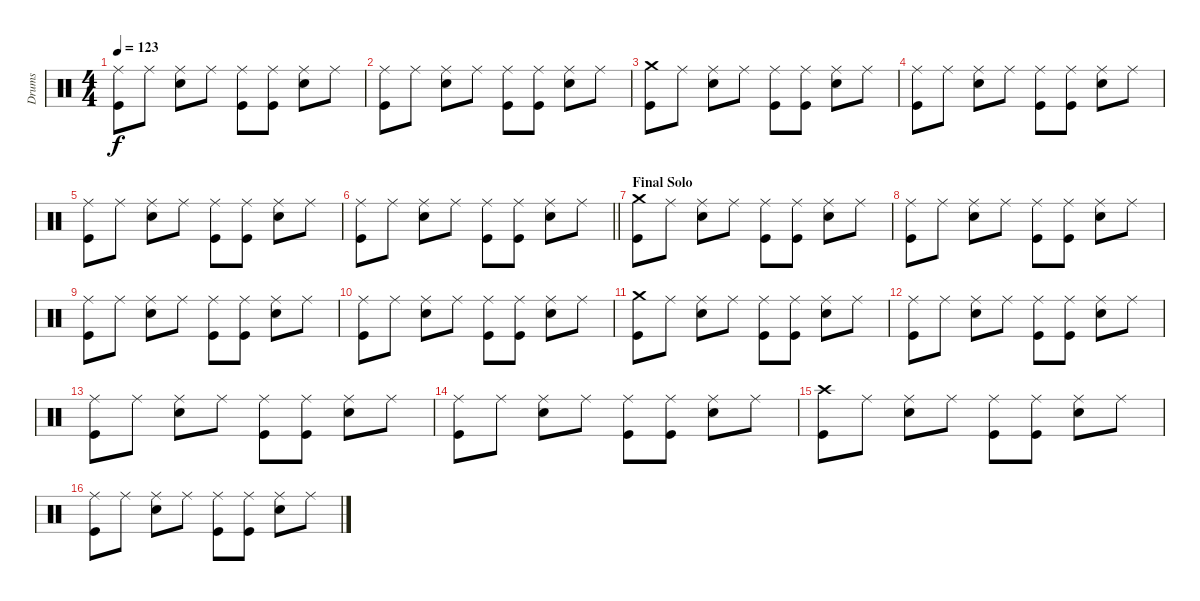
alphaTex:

\track ("Drums" "Drums") {instrument percussion}
\staff {score}
\articulation defaults
\ts (4 4)
\tempo 123
\clef neutral
\ks c
("Ride (middle)" "Kick (hit)").8{dy f} "Ride (middle)".8 ("Ride (middle)" "Electric Snare (hit)").8 "Ride (middle)".8 ("Ride (middle)" "Kick (hit)").8 ("Ride (middle)" "Kick (hit)").8 ("Ride (middle)" "Electric Snare (hit)").8 "Ride (middle)".8 |
("Ride (middle)" "Kick (hit)").8 "Ride (middle)".8 ("Ride (middle)" "Electric Snare (hit)").8 "Ride (middle)".8 ("Ride (middle)" "Kick (hit)").8 ("Ride (middle)" "Kick (hit)").8 ("Ride (middle)" "Electric Snare (hit)").8 "Ride (middle)".8 |
("Crash medium (hit)" "Kick (hit)").8 "Ride (middle)".8 ("Ride (middle)" "Electric Snare (hit)").8 "Ride (middle)".8 ("Ride (middle)" "Kick (hit)").8 ("Ride (middle)" "Kick (hit)").8 ("Ride (middle)" "Electric Snare (hit)").8 "Ride (middle)".8 |
("Ride (middle)" "Kick (hit)").8 "Ride (middle)".8 ("Ride (middle)" "Electric Snare (hit)").8 "Ride (middle)".8 ("Ride (middle)" "Kick (hit)").8 ("Ride (middle)" "Kick (hit)").8 ("Ride (middle)" "Electric Snare (hit)").8 "Ride (middle)".8 |
("Ride (middle)" "Kick (hit)").8 "Ride (middle)".8 ("Ride (middle)" "Electric Snare (hit)").8 "Ride (middle)".8 ("Ride (middle)" "Kick (hit)").8 ("Ride (middle)" "Kick (hit)").8 ("Ride (middle)" "Electric Snare (hit)").8 "Ride (middle)".8 |
\barLineRight lightlight
("Ride (middle)" "Kick (hit)").8 "Ride (middle)".8 ("Ride (middle)" "Electric Snare (hit)").8 "Ride (middle)".8 ("Ride (middle)" "Kick (hit)").8 ("Ride (middle)" "Kick (hit)").8 ("Ride (middle)" "Electric Snare (hit)").8 "Ride (middle)".8 |
\section ("" "Final Solo")
("Crash medium (hit)" "Kick (hit)").8 "Ride (middle)".8 ("Ride (middle)" "Electric Snare (hit)").8 "Ride (middle)".8 ("Ride (middle)" "Kick (hit)").8 ("Ride (middle)" "Kick (hit)").8 ("Ride (middle)" "Electric Snare (hit)").8 "Ride (middle)".8 |
("Ride (middle)" "Kick (hit)").8 "Ride (middle)".8 ("Ride (middle)" "Electric Snare (hit)").8 "Ride (middle)".8 ("Ride (middle)" "Kick (hit)").8 ("Ride (middle)" "Kick (hit)").8 ("Ride (middle)" "Electric Snare (hit)").8 "Ride (middle)".8 |
("Ride (middle)" "Kick (hit)").8 "Ride (middle)".8 ("Ride (middle)" "Electric Snare (hit)").8 "Ride (middle)".8 ("Ride (middle)" "Kick (hit)").8 ("Ride (middle)" "Kick (hit)").8 ("Ride (middle)" "Electric Snare (hit)").8 "Ride (middle)".8 |
("Ride (middle)" "Kick (hit)").8 "Ride (middle)".8 ("Ride (middle)" "Electric Snare (hit)").8 "Ride (middle)".8 ("Ride (middle)" "Kick (hit)").8 ("Ride (middle)" "Kick (hit)").8 ("Ride (middle)" "Electric Snare (hit)").8 "Ride (middle)".8 |
("Crash medium (hit)" "Kick (hit)").8 "Ride (middle)".8 ("Ride (middle)" "Electric Snare (hit)").8 "Ride (middle)".8 ("Ride (middle)" "Kick (hit)").8 ("Ride (middle)" "Kick (hit)").8 ("Ride (middle)" "Electric Snare (hit)").8 "Ride (middle)".8 |
("Ride (middle)" "Kick (hit)").8 "Ride (middle)".8 ("Ride (middle)" "Electric Snare (hit)").8 "Ride (middle)".8 ("Ride (middle)" "Kick (hit)").8 ("Ride (middle)" "Kick (hit)").8 ("Ride (middle)" "Electric Snare (hit)").8 "Ride (middle)".8 |
("Ride (middle)" "Kick (hit)").8 "Ride (middle)".8 ("Ride (middle)" "Electric Snare (hit)").8 "Ride (middle)".8 ("Ride (middle)" "Kick (hit)").8 ("Ride (middle)" "Kick (hit)").8 ("Ride (middle)" "Electric Snare (hit)").8 "Ride (middle)".8 |
("Ride (middle)" "Kick (hit)").8 "Ride (middle)".8 ("Ride (middle)" "Electric Snare (hit)").8 "Ride (middle)".8 ("Ride (middle)" "Kick (hit)").8 ("Ride (middle)" "Kick (hit)").8 ("Ride (middle)" "Electric Snare (hit)").8 "Ride (middle)".8 |
("Crash high (hit)" "Kick (hit)").8 "Ride (middle)".8 ("Ride (middle)" "Electric Snare (hit)").8 "Ride (middle)".8 ("Ride (middle)" "Kick (hit)").8 ("Ride (middle)" "Kick (hit)").8 ("Ride (middle)" "Electric Snare (hit)").8 "Ride (middle)".8 |
("Ride (middle)" "Kick (hit)").8 "Ride (middle)".8 ("Ride (middle)" "Electric Snare (hit)").8 "Ride (middle)".8 ("Ride (middle)" "Kick (hit)").8 ("Ride (middle)" "Kick (hit)").8 ("Ride (middle)" "Electric Snare (hit)").8 "Ride (middle)".8
